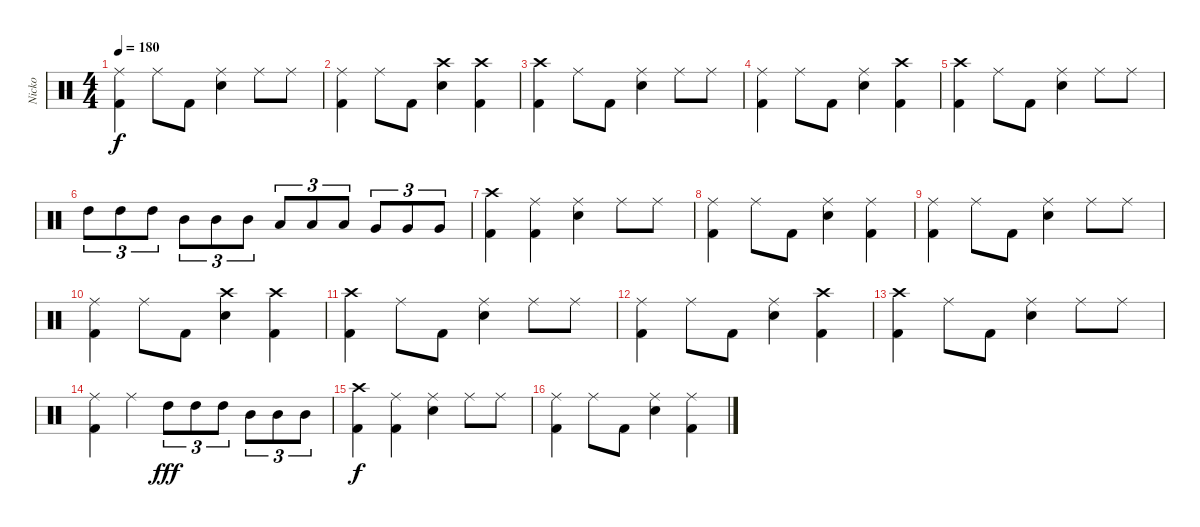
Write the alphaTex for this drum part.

\track ("Nicko" "Nicko") {instrument percussion}
\staff {score}
\articulation defaults
\ts (4 4)
\tempo 180
\clef neutral
\ks c
("Ride (middle)" "Kick (hit) 2").4{dy f} "Ride (middle)".8 "Kick (hit) 2".8 ("Ride (middle)" "Snare (hit) 2").4 "Ride (middle)".8 "Ride (middle)".8 |
("Ride (middle)" "Kick (hit) 2").4 "Ride (middle)".8 "Kick (hit) 2".8 ("Crash high (hit)" "Snare (hit) 2").4 ("Crash high (hit)" "Kick (hit) 2").4 |
("Crash high (hit)" "Kick (hit) 2").4 "Ride (middle)".8 "Kick (hit) 2".8 ("Ride (middle)" "Snare (hit) 2").4 "Ride (middle)".8 "Ride (middle)".8 |
("Ride (middle)" "Kick (hit) 2").4 "Ride (middle)".8 "Kick (hit) 2".8 ("Ride (middle)" "Snare (hit) 2").4 ("Crash high (hit)" "Kick (hit) 2").4 |
("Crash high (hit)" "Kick (hit) 2").4 "Ride (middle)".8 "Kick (hit) 2".8 ("Ride (middle)" "Snare (hit) 2").4 "Ride (middle)".8 "Ride (middle)".8 |
"High Tom (hit)".8{tu (3 2)} "High Tom (hit)".8{tu (3 2)} "High Tom (hit)".8{tu (3 2)} "Mid Tom (hit)".8{tu (3 2)} "Mid Tom (hit)".8{tu (3 2)} "Mid Tom (hit)".8{tu (3 2)} "Low Tom (hit)".8{tu (3 2)} "Low Tom (hit)".8{tu (3 2)} "Low Tom (hit)".8{tu (3 2)} "Very Low Tom (hit)".8{tu (3 2)} "Very Low Tom (hit)".8{tu (3 2)} "Very Low Tom (hit)".8{tu (3 2)} |
("Crash high (hit)" "Kick (hit) 2").4 ("Ride (middle)" "Kick (hit) 2").4 ("Ride (middle)" "Snare (hit) 2").4 "Ride (middle)".8 "Ride (middle)".8 |
("Ride (middle)" "Kick (hit) 2").4 "Ride (middle)".8 "Kick (hit) 2".8 ("Ride (middle)" "Snare (hit) 2").4 ("Ride (middle)" "Kick (hit) 2").4 |
("Ride (middle)" "Kick (hit) 2").4 "Ride (middle)".8 "Kick (hit) 2".8 ("Ride (middle)" "Snare (hit) 2").4 "Ride (middle)".8 "Ride (middle)".8 |
("Ride (middle)" "Kick (hit) 2").4 "Ride (middle)".8 "Kick (hit) 2".8 ("Crash high (hit)" "Snare (hit) 2").4 ("Crash high (hit)" "Kick (hit) 2").4 |
("Crash high (hit)" "Kick (hit) 2").4 "Ride (middle)".8 "Kick (hit) 2".8 ("Ride (middle)" "Snare (hit) 2").4 "Ride (middle)".8 "Ride (middle)".8 |
("Ride (middle)" "Kick (hit) 2").4 "Ride (middle)".8 "Kick (hit) 2".8 ("Ride (middle)" "Snare (hit) 2").4 ("Crash high (hit)" "Kick (hit) 2").4 |
("Crash high (hit)" "Kick (hit) 2").4 "Ride (middle)".8 "Kick (hit) 2".8 ("Ride (middle)" "Snare (hit) 2").4 "Ride (middle)".8 "Ride (middle)".8 |
("Ride (middle)" "Kick (hit) 2").4 "Ride (middle)".4 "High Tom (hit)".8{tu (3 2) dy fff} "High Tom (hit)".8{tu (3 2)} "High Tom (hit)".8{tu (3 2)} "Mid Tom (hit)".8{tu (3 2)} "Mid Tom (hit)".8{tu (3 2)} "Mid Tom (hit)".8{tu (3 2)} |
("Crash high (hit)" "Kick (hit) 2").4{dy f} ("Ride (middle)" "Kick (hit) 2").4 ("Ride (middle)" "Snare (hit) 2").4 "Ride (middle)".8 "Ride (middle)".8 |
("Ride (middle)" "Kick (hit) 2").4 "Ride (middle)".8 "Kick (hit) 2".8 ("Ride (middle)" "Snare (hit) 2").4 ("Ride (middle)" "Kick (hit) 2").4
